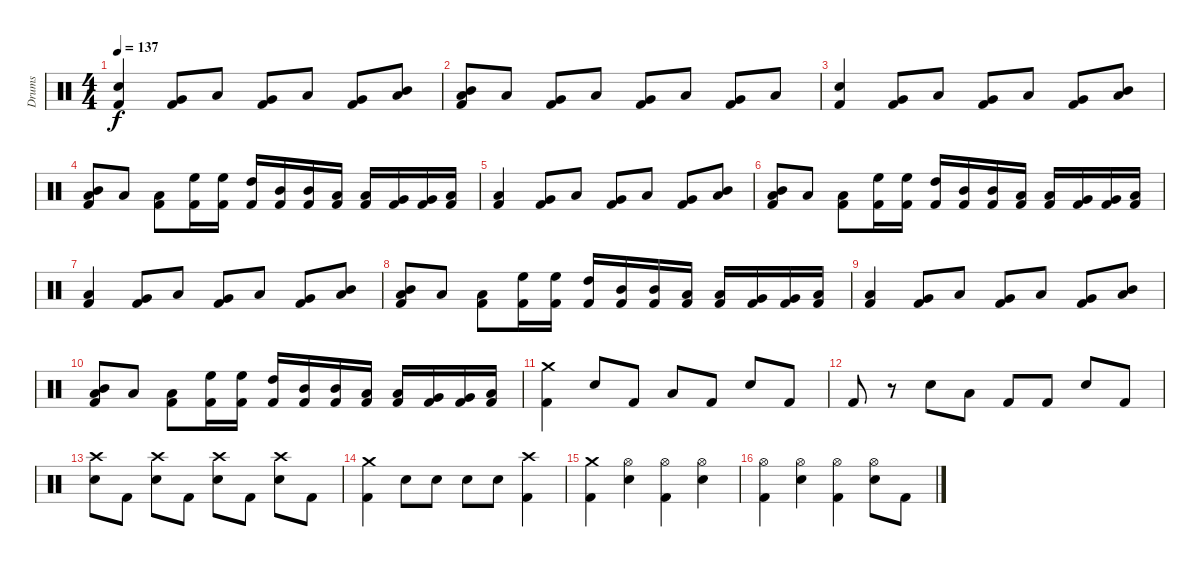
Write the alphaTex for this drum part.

\track ("Drums" "Drums") {instrument percussion}
\staff {score}
\articulation defaults
\ts (4 4)
\tempo 137
\clef neutral
\ks c
("Snare (hit) 2" "Kick (hit) 2").4{dy f} ("Very Low Tom (hit)" "Kick (hit) 2").8 "Low Floor Tom (hit)".8 ("Very Low Tom (hit)" "Kick (hit) 2").8 "Low Floor Tom (hit)".8 ("Very Low Tom (hit)" "Kick (hit) 2").8 ("Mid Tom (hit)" "Low Floor Tom (hit)").8 |
("Mid Tom (hit)" "Low Floor Tom (hit)" "Kick (hit) 2").8 "Low Floor Tom (hit)".8 ("Very Low Tom (hit)" "Kick (hit) 2").8 "Low Floor Tom (hit)".8 ("Very Low Tom (hit)" "Kick (hit) 2").8 "Low Floor Tom (hit)".8 ("Very Low Tom (hit)" "Kick (hit) 2").8 "Low Floor Tom (hit)".8 |
("Snare (hit) 2" "Kick (hit) 2").4 ("Very Low Tom (hit)" "Kick (hit) 2").8 "Low Floor Tom (hit)".8 ("Very Low Tom (hit)" "Kick (hit) 2").8 "Low Floor Tom (hit)".8 ("Very Low Tom (hit)" "Kick (hit) 2").8 ("Mid Tom (hit)" "Low Floor Tom (hit)").8 |
("Mid Tom (hit)" "Low Floor Tom (hit)" "Kick (hit) 2").8 "Low Floor Tom (hit)".8 ("Low Floor Tom (hit)" "Kick (hit) 2").8 ("High Floor Tom (hit)" "Kick (hit) 2").16 ("High Floor Tom (hit)" "Kick (hit) 2").16 ("High Tom (hit)" "Kick (hit) 2").16 ("Mid Tom (hit)" "Kick (hit) 2").16 ("Mid Tom (hit)" "Kick (hit) 2").16 ("Low Tom (hit)" "Kick (hit) 2").16 ("Low Tom (hit)" "Kick (hit) 2").16 ("Very Low Tom (hit)" "Kick (hit) 2").16 ("Very Low Tom (hit)" "Kick (hit) 2").16 ("Low Floor Tom (hit)" "Kick (hit) 2").16 |
("Low Floor Tom (hit)" "Kick (hit) 2").4 ("Very Low Tom (hit)" "Kick (hit) 2").8 "Low Floor Tom (hit)".8 ("Very Low Tom (hit)" "Kick (hit) 2").8 "Low Floor Tom (hit)".8 ("Very Low Tom (hit)" "Kick (hit) 2").8 ("Mid Tom (hit)" "Low Floor Tom (hit)").8 |
("Mid Tom (hit)" "Low Floor Tom (hit)" "Kick (hit) 2").8 "Low Floor Tom (hit)".8 ("Low Floor Tom (hit)" "Kick (hit) 2").8 ("High Floor Tom (hit)" "Kick (hit) 2").16 ("High Floor Tom (hit)" "Kick (hit) 2").16 ("High Tom (hit)" "Kick (hit) 2").16 ("Mid Tom (hit)" "Kick (hit) 2").16 ("Mid Tom (hit)" "Kick (hit) 2").16 ("Low Tom (hit)" "Kick (hit) 2").16 ("Low Tom (hit)" "Kick (hit) 2").16 ("Very Low Tom (hit)" "Kick (hit) 2").16 ("Very Low Tom (hit)" "Kick (hit) 2").16 ("Low Floor Tom (hit)" "Kick (hit) 2").16 |
("Low Floor Tom (hit)" "Kick (hit) 2").4 ("Very Low Tom (hit)" "Kick (hit) 2").8 "Low Floor Tom (hit)".8 ("Very Low Tom (hit)" "Kick (hit) 2").8 "Low Floor Tom (hit)".8 ("Very Low Tom (hit)" "Kick (hit) 2").8 ("Mid Tom (hit)" "Low Floor Tom (hit)").8 |
("Mid Tom (hit)" "Low Floor Tom (hit)" "Kick (hit) 2").8 "Low Floor Tom (hit)".8 ("Low Floor Tom (hit)" "Kick (hit) 2").8 ("High Floor Tom (hit)" "Kick (hit) 2").16 ("High Floor Tom (hit)" "Kick (hit) 2").16 ("High Tom (hit)" "Kick (hit) 2").16 ("Mid Tom (hit)" "Kick (hit) 2").16 ("Mid Tom (hit)" "Kick (hit) 2").16 ("Low Tom (hit)" "Kick (hit) 2").16 ("Low Tom (hit)" "Kick (hit) 2").16 ("Very Low Tom (hit)" "Kick (hit) 2").16 ("Very Low Tom (hit)" "Kick (hit) 2").16 ("Low Floor Tom (hit)" "Kick (hit) 2").16 |
("Low Floor Tom (hit)" "Kick (hit) 2").4 ("Very Low Tom (hit)" "Kick (hit) 2").8 "Low Floor Tom (hit)".8 ("Very Low Tom (hit)" "Kick (hit) 2").8 "Low Floor Tom (hit)".8 ("Very Low Tom (hit)" "Kick (hit) 2").8 ("Mid Tom (hit)" "Low Floor Tom (hit)").8 |
("Mid Tom (hit)" "Low Floor Tom (hit)" "Kick (hit) 2").8 "Low Floor Tom (hit)".8 ("Low Floor Tom (hit)" "Kick (hit) 2").8 ("High Floor Tom (hit)" "Kick (hit) 2").16 ("High Floor Tom (hit)" "Kick (hit) 2").16 ("High Tom (hit)" "Kick (hit) 2").16 ("Mid Tom (hit)" "Kick (hit) 2").16 ("Mid Tom (hit)" "Kick (hit) 2").16 ("Low Tom (hit)" "Kick (hit) 2").16 ("Low Tom (hit)" "Kick (hit) 2").16 ("Very Low Tom (hit)" "Kick (hit) 2").16 ("Very Low Tom (hit)" "Kick (hit) 2").16 ("Low Floor Tom (hit)" "Kick (hit) 2").16 |
("Crash medium (hit)" "Kick (hit) 2").4 "Snare (hit) 2".8 "Kick (hit) 2".8 "Low Floor Tom (hit)".8 "Kick (hit) 2".8 "Snare (hit) 2".8 "Kick (hit) 2".8 |
"Kick (hit) 2".8 r.8 "Snare (hit) 2".8 "Low Floor Tom (hit)".8 "Kick (hit) 2".8 "Kick (hit) 2".8 "Snare (hit) 2".8 "Kick (hit) 2".8 |
("Crash high (hit)" "Snare (hit) 2").8 "Kick (hit) 2".8 ("Crash high (hit)" "Snare (hit) 2").8 "Kick (hit) 2".8 ("Crash high (hit)" "Snare (hit) 2").8 "Kick (hit) 2".8 ("Crash high (hit)" "Snare (hit) 2").8 "Kick (hit) 2".8 |
("Crash medium (hit)" "Kick (hit) 2").4 "Snare (hit) 2".8 "Snare (hit) 2".8 "Snare (hit) 2".8 "Snare (hit) 2".8 ("Crash high (hit)" "Kick (hit) 2").4 |
("Crash medium (hit)" "Kick (hit) 2").4 ("Hi-Hat (open)" "Snare (hit) 2").4 ("Hi-Hat (open)" "Kick (hit) 2").4 ("Hi-Hat (open)" "Snare (hit) 2").4 |
("Hi-Hat (open)" "Kick (hit) 2").4 ("Hi-Hat (open)" "Snare (hit) 2").4 ("Hi-Hat (open)" "Kick (hit) 2").4 ("Hi-Hat (open)" "Snare (hit) 2").8 "Kick (hit) 2".8
